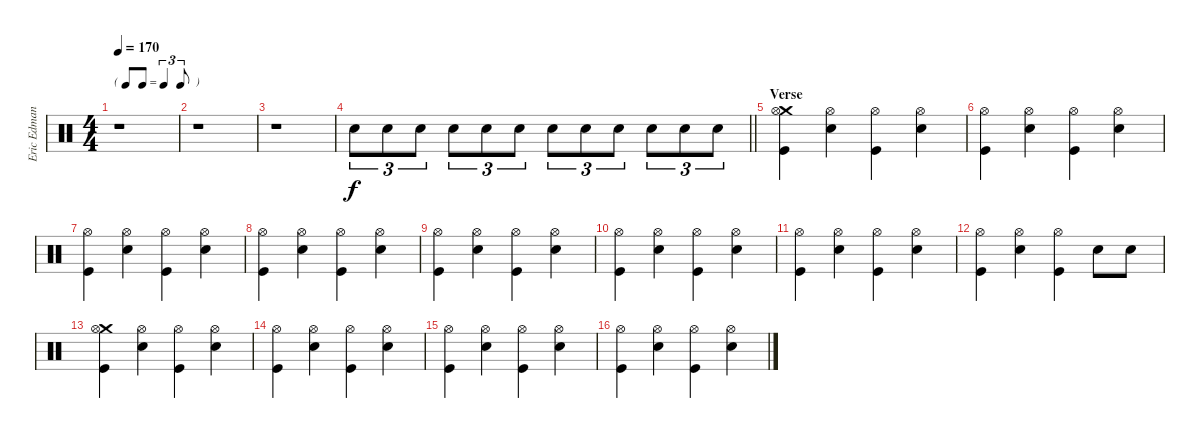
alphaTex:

\track ("Eric Edman - Drums" "Eric Edman") {instrument percussion}
\staff {score}
\articulation defaults
\ts (4 4)
\tf triplet8th
\tempo 170
\clef neutral
\ks c
r.1{dy f} |
r.1 |
r.1 |
\barLineRight lightlight "Snare (hit) 2".8{tu (3 2)} "Snare (hit) 2".8{tu (3 2)} "Snare (hit) 2".8{tu (3 2)} "Snare (hit) 2".8{tu (3 2)} "Snare (hit) 2".8{tu (3 2)} "Snare (hit) 2".8{tu (3 2)} "Snare (hit) 2".8{tu (3 2)} "Snare (hit) 2".8{tu (3 2)} "Snare (hit) 2".8{tu (3 2)} "Snare (hit) 2".8{tu (3 2)} "Snare (hit) 2".8{tu (3 2)} "Snare (hit) 2".8{tu (3 2)}
|
\section ("" "Verse")
("Crash medium (hit)" "Hi-Hat (open)" "Kick (hit)").4 ("Hi-Hat (open)" "Snare (hit) 2").4 ("Hi-Hat (open)" "Kick (hit)").4 ("Hi-Hat (open)" "Snare (hit) 2").4 |
("Hi-Hat (open)" "Kick (hit)").4 ("Hi-Hat (open)" "Snare (hit) 2").4 ("Hi-Hat (open)" "Kick (hit)").4 ("Hi-Hat (open)" "Snare (hit) 2").4 |
("Hi-Hat (open)" "Kick (hit)").4 ("Hi-Hat (open)" "Snare (hit) 2").4 ("Hi-Hat (open)" "Kick (hit)").4 ("Hi-Hat (open)" "Snare (hit) 2").4 |
("Hi-Hat (open)" "Kick (hit)").4 ("Hi-Hat (open)" "Snare (hit) 2").4 ("Hi-Hat (open)" "Kick (hit)").4 ("Hi-Hat (open)" "Snare (hit) 2").4 |
("Hi-Hat (open)" "Kick (hit)").4 ("Hi-Hat (open)" "Snare (hit) 2").4 ("Hi-Hat (open)" "Kick (hit)").4 ("Hi-Hat (open)" "Snare (hit) 2").4 |
("Hi-Hat (open)" "Kick (hit)").4 ("Hi-Hat (open)" "Snare (hit) 2").4 ("Hi-Hat (open)" "Kick (hit)").4 ("Hi-Hat (open)" "Snare (hit) 2").4 |
("Hi-Hat (open)" "Kick (hit)").4 ("Hi-Hat (open)" "Snare (hit) 2").4 ("Hi-Hat (open)" "Kick (hit)").4 ("Hi-Hat (open)" "Snare (hit) 2").4 |
("Hi-Hat (open)" "Kick (hit)").4 ("Hi-Hat (open)" "Snare (hit) 2").4 ("Hi-Hat (open)" "Kick (hit)").4 "Snare (hit) 2".8 "Snare (hit) 2".8 |
("Crash medium (hit)" "Hi-Hat (open)" "Kick (hit)").4 ("Hi-Hat (open)" "Snare (hit) 2").4 ("Hi-Hat (open)" "Kick (hit)").4 ("Hi-Hat (open)" "Snare (hit) 2").4 |
("Hi-Hat (open)" "Kick (hit)").4 ("Hi-Hat (open)" "Snare (hit) 2").4 ("Hi-Hat (open)" "Kick (hit)").4 ("Hi-Hat (open)" "Snare (hit) 2").4 |
("Hi-Hat (open)" "Kick (hit)").4 ("Hi-Hat (open)" "Snare (hit) 2").4 ("Hi-Hat (open)" "Kick (hit)").4 ("Hi-Hat (open)" "Snare (hit) 2").4 |
("Hi-Hat (open)" "Kick (hit)").4 ("Hi-Hat (open)" "Snare (hit) 2").4 ("Hi-Hat (open)" "Kick (hit)").4 ("Hi-Hat (open)" "Snare (hit) 2").4
